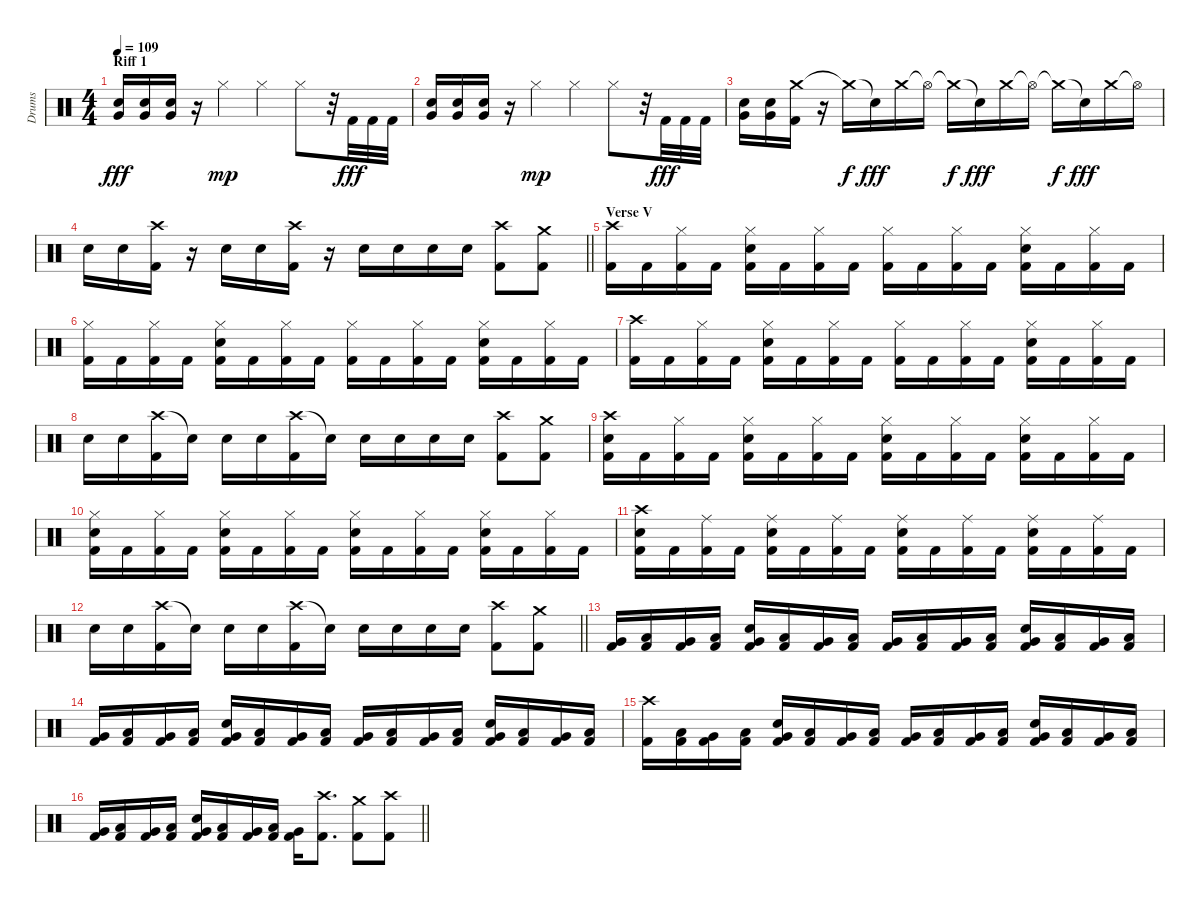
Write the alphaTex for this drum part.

\track ("Drums" "Drums") {instrument percussion}
\staff {score}
\articulation defaults
\ts (4 4)
\section ("" "Riff 1")
\tempo 109
\clef neutral
\ks c
("Electric Snare (hit)" "Very Low Tom (hit)").16{dy fff} ("Electric Snare (hit)" "Very Low Tom (hit)").16 ("Electric Snare (hit)" "Very Low Tom (hit)").16 r.16 "Hi-Hat (closed)".4{dy mp} "Hi-Hat (closed)".4 "Hi-Hat (closed)".8 r.32 "Kick (hit) 2".32{dy fff} "Kick (hit) 2".32 "Kick (hit) 2".32 |
("Electric Snare (hit)" "Very Low Tom (hit)").16 ("Electric Snare (hit)" "Very Low Tom (hit)").16 ("Electric Snare (hit)" "Very Low Tom (hit)").16 r.16 "Hi-Hat (closed)".4{dy mp} "Hi-Hat (closed)".4 "Hi-Hat (closed)".8 r.32 "Kick (hit) 2".32{dy fff} "Kick (hit) 2".32 "Kick (hit) 2".32 |
("Electric Snare (hit)" "Very Low Tom (hit)").16 ("Electric Snare (hit)" "Very Low Tom (hit)").16 ("Crash medium (hit)" "Kick (hit) 2").16 r.16 "Crash medium (hit)"{t}.16{dy f} "Snare (hit)"{t}.16{dy fff} "Crash medium (hit)".16 "Hi-Hat (open)"{t}.16 "Crash medium (hit)"{t}.16{dy f} "Snare (hit)"{t}.16{dy fff} "Crash medium (hit)".16 "Hi-Hat (open)"{t}.16 "Crash medium (hit)"{t}.16{dy f} "Snare (hit)"{t}.16{dy fff} "Crash medium (hit)".16 "Hi-Hat (open)"{t}.16 |
\barLineRight lightlight "Electric Snare (hit)".16 "Electric Snare (hit)".16
("Crash high (hit)" "Kick (hit) 2").16 r.16 "Electric Snare (hit)".16 "Electric Snare (hit)".16 ("Crash high (hit)" "Kick (hit) 2").16 r.16 "Electric Snare (hit)".16 "Electric Snare (hit)".16 "Electric Snare (hit)".16 "Electric Snare (hit)".16 ("Crash high (hit)" "Kick (hit) 2").8 ("Crash medium (hit)" "Kick (hit) 2").8 |
\section ("" "Verse V")
("Crash high (hit)" "Kick (hit) 2").16 "Kick (hit) 2".16 ("Hi-Hat (closed)" "Kick (hit) 2").16 "Kick (hit) 2".16 ("Hi-Hat (closed)" "Electric Snare (hit)" "Kick (hit) 2").16 "Kick (hit) 2".16 ("Hi-Hat (closed)" "Kick (hit) 2").16 "Kick (hit) 2".16 ("Hi-Hat (closed)" "Kick (hit) 2").16 "Kick (hit) 2".16 ("Hi-Hat (closed)" "Kick (hit) 2").16 "Kick (hit) 2".16 ("Hi-Hat (closed)" "Electric Snare (hit)" "Kick (hit) 2").16 "Kick (hit) 2".16 ("Hi-Hat (closed)" "Kick (hit) 2").16 "Kick (hit) 2".16 |
("Hi-Hat (closed)" "Kick (hit) 2").16 "Kick (hit) 2".16 ("Hi-Hat (closed)" "Kick (hit) 2").16 "Kick (hit) 2".16 ("Hi-Hat (closed)" "Electric Snare (hit)" "Kick (hit) 2").16 "Kick (hit) 2".16 ("Hi-Hat (closed)" "Kick (hit) 2").16 "Kick (hit) 2".16 ("Hi-Hat (closed)" "Kick (hit) 2").16 "Kick (hit) 2".16 ("Hi-Hat (closed)" "Kick (hit) 2").16 "Kick (hit) 2".16 ("Hi-Hat (closed)" "Electric Snare (hit)" "Kick (hit) 2").16 "Kick (hit) 2".16 ("Hi-Hat (closed)" "Kick (hit) 2").16 "Kick (hit) 2".16 |
("Crash high (hit)" "Kick (hit) 2").16 "Kick (hit) 2".16 ("Hi-Hat (closed)" "Kick (hit) 2").16 "Kick (hit) 2".16 ("Hi-Hat (closed)" "Electric Snare (hit)" "Kick (hit) 2").16 "Kick (hit) 2".16 ("Hi-Hat (closed)" "Kick (hit) 2").16 "Kick (hit) 2".16 ("Hi-Hat (closed)" "Kick (hit) 2").16 "Kick (hit) 2".16 ("Hi-Hat (closed)" "Kick (hit) 2").16 "Kick (hit) 2".16 ("Hi-Hat (closed)" "Electric Snare (hit)" "Kick (hit) 2").16 "Kick (hit) 2".16 ("Hi-Hat (closed)" "Kick (hit) 2").16 "Kick (hit) 2".16 |
"Electric Snare (hit)".16 "Electric Snare (hit)".16 ("Crash high (hit)" "Kick (hit) 2").16 "Electric Snare (hit)"{t}.16 "Electric Snare (hit)".16 "Electric Snare (hit)".16 ("Crash high (hit)" "Kick (hit) 2").16 "Electric Snare (hit)"{t}.16 "Electric Snare (hit)".16 "Electric Snare (hit)".16 "Electric Snare (hit)".16 "Electric Snare (hit)".16 ("Crash high (hit)" "Kick (hit) 2").8 ("Crash medium (hit)" "Kick (hit) 2").8 |
("Crash high (hit)" "Electric Snare (hit)" "Kick (hit) 2").16 "Kick (hit) 2".16 ("Hi-Hat (closed)" "Kick (hit) 2").16 "Kick (hit) 2".16 ("Hi-Hat (closed)" "Electric Snare (hit)" "Kick (hit) 2").16 "Kick (hit) 2".16 ("Hi-Hat (closed)" "Kick (hit) 2").16 "Kick (hit) 2".16 ("Hi-Hat (closed)" "Electric Snare (hit)" "Kick (hit) 2").16 "Kick (hit) 2".16 ("Hi-Hat (closed)" "Kick (hit) 2").16 "Kick (hit) 2".16 ("Hi-Hat (closed)" "Electric Snare (hit)" "Kick (hit) 2").16 "Kick (hit) 2".16 ("Hi-Hat (closed)" "Kick (hit) 2").16 "Kick (hit) 2".16 |
("Hi-Hat (closed)" "Electric Snare (hit)" "Kick (hit) 2").16 "Kick (hit) 2".16 ("Hi-Hat (closed)" "Kick (hit) 2").16 "Kick (hit) 2".16 ("Hi-Hat (closed)" "Electric Snare (hit)" "Kick (hit) 2").16 "Kick (hit) 2".16 ("Hi-Hat (closed)" "Kick (hit) 2").16 "Kick (hit) 2".16 ("Hi-Hat (closed)" "Electric Snare (hit)" "Kick (hit) 2").16 "Kick (hit) 2".16 ("Hi-Hat (closed)" "Kick (hit) 2").16 "Kick (hit) 2".16 ("Hi-Hat (closed)" "Electric Snare (hit)" "Kick (hit) 2").16 "Kick (hit) 2".16 ("Hi-Hat (closed)" "Kick (hit) 2").16 "Kick (hit) 2".16 |
("Crash high (hit)" "Electric Snare (hit)" "Kick (hit) 2").16 "Kick (hit) 2".16 ("Ride (middle)" "Kick (hit) 2").16 "Kick (hit) 2".16 ("Ride (middle)" "Electric Snare (hit)" "Kick (hit) 2").16 "Kick (hit) 2".16 ("Ride (middle)" "Kick (hit) 2").16 "Kick (hit) 2".16 ("Ride (middle)" "Electric Snare (hit)" "Kick (hit) 2").16 "Kick (hit) 2".16 ("Ride (middle)" "Kick (hit) 2").16 "Kick (hit) 2".16 ("Ride (middle)" "Electric Snare (hit)" "Kick (hit) 2").16 "Kick (hit) 2".16 ("Ride (middle)" "Kick (hit) 2").16 "Kick (hit) 2".16 |
\barLineRight lightlight "Electric Snare (hit)".16 "Electric Snare (hit)".16
("Crash high (hit)" "Kick (hit) 2").16 "Electric Snare (hit)"{t}.16 "Electric Snare (hit)".16 "Electric Snare (hit)".16 ("Crash high (hit)" "Kick (hit) 2").16 "Electric Snare (hit)"{t}.16 "Electric Snare (hit)".16 "Electric Snare (hit)".16 "Electric Snare (hit)".16 "Electric Snare (hit)".16 ("Crash high (hit)" "Kick (hit) 2").8 ("Crash medium (hit)" "Kick (hit) 2").8 |
("Very Low Tom (hit)" "Kick (hit) 2").16 ("Low Tom (hit)" "Kick (hit) 2").16 ("Very Low Tom (hit)" "Kick (hit) 2").16 ("Low Tom (hit)" "Kick (hit) 2").16 ("Electric Snare (hit)" "Very Low Tom (hit)" "Kick (hit) 2").16 ("Low Tom (hit)" "Kick (hit) 2").16 ("Very Low Tom (hit)" "Kick (hit) 2").16 ("Low Tom (hit)" "Kick (hit) 2").16 ("Very Low Tom (hit)" "Kick (hit) 2").16 ("Low Tom (hit)" "Kick (hit) 2").16 ("Very Low Tom (hit)" "Kick (hit) 2").16 ("Low Tom (hit)" "Kick (hit) 2").16 ("Electric Snare (hit)" "Very Low Tom (hit)" "Kick (hit) 2").16 ("Low Tom (hit)" "Kick (hit) 2").16 ("Very Low Tom (hit)" "Kick (hit) 2").16 ("Low Tom (hit)" "Kick (hit) 2").16 |
("Very Low Tom (hit)" "Kick (hit) 2").16 ("Low Tom (hit)" "Kick (hit) 2").16 ("Very Low Tom (hit)" "Kick (hit) 2").16 ("Low Tom (hit)" "Kick (hit) 2").16 ("Electric Snare (hit)" "Very Low Tom (hit)" "Kick (hit) 2").16 ("Low Tom (hit)" "Kick (hit) 2").16 ("Very Low Tom (hit)" "Kick (hit) 2").16 ("Low Tom (hit)" "Kick (hit) 2").16 ("Very Low Tom (hit)" "Kick (hit) 2").16 ("Low Tom (hit)" "Kick (hit) 2").16 ("Very Low Tom (hit)" "Kick (hit) 2").16 ("Low Tom (hit)" "Kick (hit) 2").16 ("Electric Snare (hit)" "Very Low Tom (hit)" "Kick (hit) 2").16 ("Low Tom (hit)" "Kick (hit) 2").16 ("Very Low Tom (hit)" "Kick (hit) 2").16 ("Low Tom (hit)" "Kick (hit) 2").16 |
("Crash high (hit)" "Kick (hit) 2").16 ("Low Tom (hit)" "Kick (hit) 2").16 ("Very Low Tom (hit)" "Kick (hit) 2").16 ("Low Tom (hit)" "Kick (hit) 2").16 ("Electric Snare (hit)" "Very Low Tom (hit)" "Kick (hit) 2").16 ("Low Tom (hit)" "Kick (hit) 2").16 ("Very Low Tom (hit)" "Kick (hit) 2").16 ("Low Tom (hit)" "Kick (hit) 2").16 ("Very Low Tom (hit)" "Kick (hit) 2").16 ("Low Tom (hit)" "Kick (hit) 2").16 ("Very Low Tom (hit)" "Kick (hit) 2").16 ("Low Tom (hit)" "Kick (hit) 2").16 ("Electric Snare (hit)" "Very Low Tom (hit)" "Kick (hit) 2").16 ("Low Tom (hit)" "Kick (hit) 2").16 ("Very Low Tom (hit)" "Kick (hit) 2").16 ("Low Tom (hit)" "Kick (hit) 2").16 |
\barLineRight lightlight
("Very Low Tom (hit)" "Kick (hit) 2").16 ("Low Tom (hit)" "Kick (hit) 2").16 ("Very Low Tom (hit)" "Kick (hit) 2").16 ("Low Tom (hit)" "Kick (hit) 2").16 ("Electric Snare (hit)" "Very Low Tom (hit)" "Kick (hit) 2").16 ("Low Tom (hit)" "Kick (hit) 2").16 ("Very Low Tom (hit)" "Kick (hit) 2").16 ("Low Tom (hit)" "Kick (hit) 2").16 ("Very Low Tom (hit)" "Kick (hit) 2").16 ("Crash high (hit)" "Kick (hit) 2").8{d} ("Crash medium (hit)" "Kick (hit) 2").8 ("Crash high (hit)" "Kick (hit) 2").8
